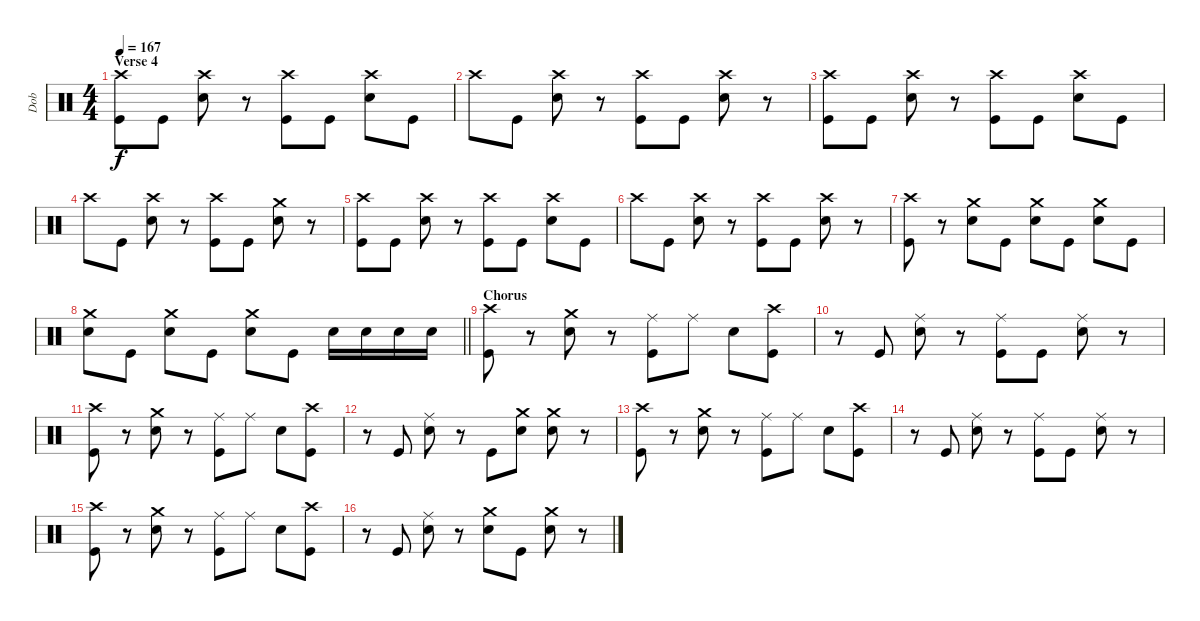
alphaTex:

\track ("Dob" "Dob") {instrument percussion}
\staff {score}
\articulation defaults
\ts (4 4)
\section ("" "Verse 4")
\tempo 167
\clef neutral
\ks c
("Crash high (hit)" "Kick (hit)").8{dy f} "Kick (hit)".8 ("Crash high (hit)" "Snare (hit) 2").8 r.8 ("Crash high (hit)" "Kick (hit)").8 "Kick (hit)".8 ("Crash high (hit)" "Snare (hit) 2").8 "Kick (hit)".8 |
"Crash high (hit)".8 "Kick (hit)".8 ("Crash high (hit)" "Snare (hit) 2").8 r.8 ("Crash high (hit)" "Kick (hit)").8 "Kick (hit)".8 ("Crash high (hit)" "Snare (hit) 2").8 r.8 |
("Crash high (hit)" "Kick (hit)").8 "Kick (hit)".8 ("Crash high (hit)" "Snare (hit) 2").8 r.8 ("Crash high (hit)" "Kick (hit)").8 "Kick (hit)".8 ("Crash high (hit)" "Snare (hit) 2").8 "Kick (hit)".8 |
"Crash high (hit)".8 "Kick (hit)".8 ("Crash high (hit)" "Snare (hit) 2").8 r.8 ("Crash high (hit)" "Kick (hit)").8 "Kick (hit)".8 ("Crash medium (hit)" "Snare (hit) 2").8 r.8 |
("Crash high (hit)" "Kick (hit)").8 "Kick (hit)".8 ("Crash high (hit)" "Snare (hit) 2").8 r.8 ("Crash high (hit)" "Kick (hit)").8 "Kick (hit)".8 ("Crash high (hit)" "Snare (hit) 2").8 "Kick (hit)".8 |
"Crash high (hit)".8 "Kick (hit)".8 ("Crash high (hit)" "Snare (hit) 2").8 r.8 ("Crash high (hit)" "Kick (hit)").8 "Kick (hit)".8 ("Crash high (hit)" "Snare (hit) 2").8 r.8 |
("Crash high (hit)" "Kick (hit)").8 r.8 ("Crash medium (hit)" "Snare (hit) 2").8 "Kick (hit)".8 ("Crash medium (hit)" "Snare (hit) 2").8 "Kick (hit)".8 ("Crash medium (hit)" "Snare (hit) 2").8 "Kick (hit)".8 |
\barLineRight lightlight
("Crash medium (hit)" "Snare (hit) 2").8 "Kick (hit)".8 ("Crash medium (hit)" "Snare (hit) 2").8 "Kick (hit)".8 ("Crash medium (hit)" "Snare (hit) 2").8 "Kick (hit)".8 "Snare (hit) 2".16 "Snare (hit) 2".16 "Snare (hit) 2".16 "Snare (hit) 2".16 |
\section ("" "Chorus")
("Crash high (hit)" "Kick (hit)").8 r.8 ("Crash medium (hit)" "Snare (hit) 2").8 r.8 ("Ride (middle)" "Kick (hit)").8 "Ride (middle)".8 "Snare (hit) 2".8 ("Crash high (hit)" "Kick (hit)").8 |
r.8 "Kick (hit)".8 ("Ride (middle)" "Snare (hit) 2").8 r.8 ("Ride (middle)" "Kick (hit)").8 "Kick (hit)".8 ("Ride (middle)" "Snare (hit) 2").8 r.8 |
("Crash high (hit)" "Kick (hit)").8 r.8 ("Crash medium (hit)" "Snare (hit) 2").8 r.8 ("Ride (middle)" "Kick (hit)").8 "Ride (middle)".8 "Snare (hit) 2".8 ("Crash high (hit)" "Kick (hit)").8 |
r.8 "Kick (hit)".8 ("Ride (middle)" "Snare (hit) 2").8 r.8 "Kick (hit)".8 ("Crash medium (hit)" "Snare (hit) 2").8 ("Crash medium (hit)" "Snare (hit) 2").8 r.8 |
("Crash high (hit)" "Kick (hit)").8 r.8 ("Crash medium (hit)" "Snare (hit) 2").8 r.8 ("Ride (middle)" "Kick (hit)").8 "Ride (middle)".8 "Snare (hit) 2".8 ("Crash high (hit)" "Kick (hit)").8 |
r.8 "Kick (hit)".8 ("Ride (middle)" "Snare (hit) 2").8 r.8 ("Ride (middle)" "Kick (hit)").8 "Kick (hit)".8 ("Ride (middle)" "Snare (hit) 2").8 r.8 |
("Crash high (hit)" "Kick (hit)").8 r.8 ("Crash medium (hit)" "Snare (hit) 2").8 r.8 ("Ride (middle)" "Kick (hit)").8 "Ride (middle)".8 "Snare (hit) 2".8 ("Crash high (hit)" "Kick (hit)").8 |
r.8 "Kick (hit)".8 ("Ride (middle)" "Snare (hit) 2").8 r.8 ("Crash medium (hit)" "Snare (hit) 2").8 "Kick (hit)".8 ("Crash medium (hit)" "Snare (hit) 2").8 r.8
